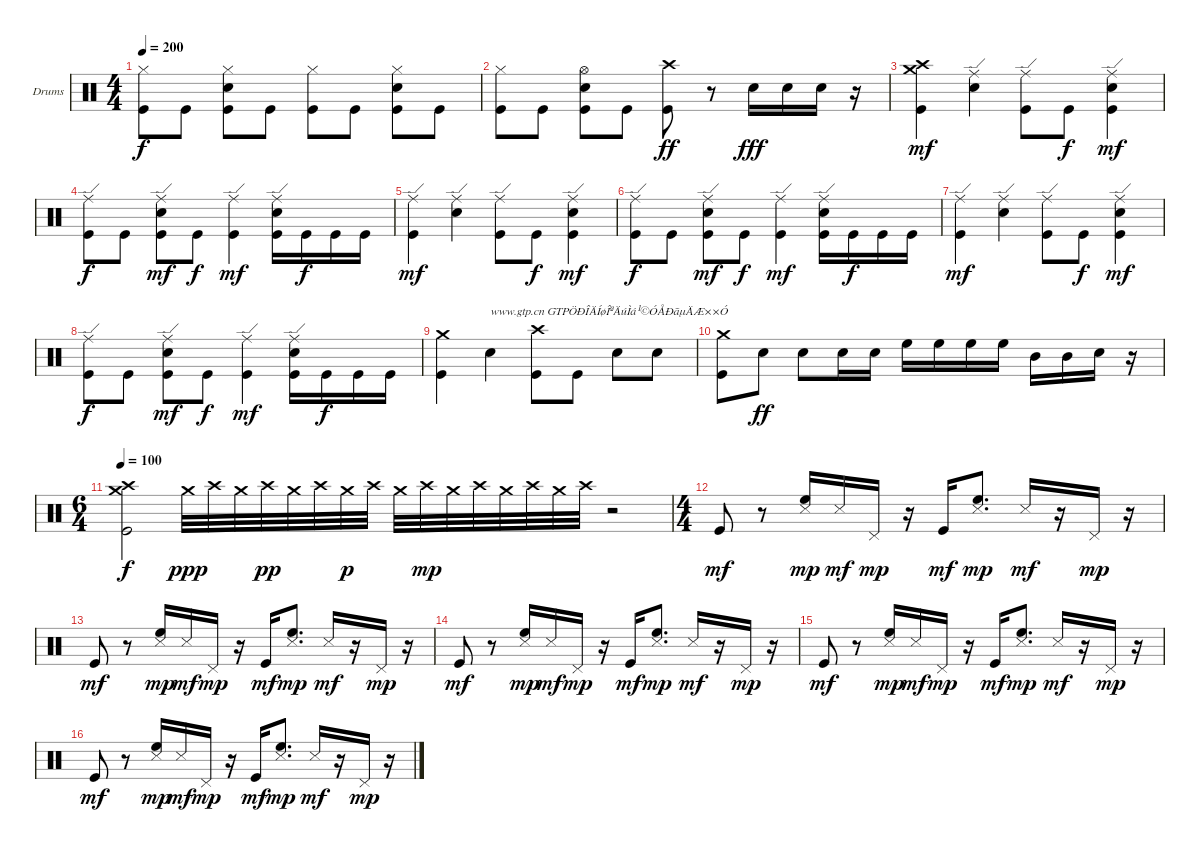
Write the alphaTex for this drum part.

\bracketExtendMode groupsimilarinstruments
\firstSystemTrackNameOrientation horizontal
\otherSystemsTrackNameOrientation horizontal
\track ("Drumkit" "Drums") {instrument percussion}
\staff {score}
\articulation defaults
\ts (4 4)
\tempo 200
\clef neutral
\ks c
("Hi-Hat (closed)" "Kick (hit)").8{dy f} "Kick (hit)".8 ("Hi-Hat (closed)" "Snare (hit) 2" "Kick (hit)").8 "Kick (hit)".8 ("Hi-Hat (closed)" "Kick (hit)").8 "Kick (hit)".8 ("Hi-Hat (closed)" "Snare (hit) 2" "Kick (hit)").8 "Kick (hit)".8 |
("Hi-Hat (closed)" "Kick (hit)").8 "Kick (hit)".8 ("Hi-Hat (open)" "Snare (hit) 2" "Kick (hit)").8 "Kick (hit)".8 ("Crash high (hit)" "Kick (hit)").8{dy ff} r.8 "Snare (hit) 2".16{dy fff} "Snare (hit) 2".16 "Snare (hit) 2".16 r.16 |
("Crash medium (hit)" "Crash high (hit)" "Kick (hit)").4{dy mf} ("Ride (edge)" "Snare (hit) 2").4 ("Ride (edge)" "Kick (hit)").8 "Kick (hit)".8{dy f} ("Ride (edge)" "Snare (hit) 2" "Kick (hit)").4{dy mf} |
("Ride (edge)" "Kick (hit)").8{dy f} "Kick (hit)".8 ("Ride (edge)" "Snare (hit) 2" "Kick (hit)").8{dy mf} "Kick (hit)".8{dy f} ("Ride (edge)" "Kick (hit)").4{dy mf} ("Ride (edge)" "Snare (hit) 2" "Kick (hit)").16 "Kick (hit)".16{dy f} "Kick (hit)".16 "Kick (hit)".16 |
("Ride (edge)" "Kick (hit)").4{dy mf} ("Ride (edge)" "Snare (hit) 2").4 ("Ride (edge)" "Kick (hit)").8 "Kick (hit)".8{dy f} ("Ride (edge)" "Snare (hit) 2" "Kick (hit)").4{dy mf} |
("Ride (edge)" "Kick (hit)").8{dy f} "Kick (hit)".8 ("Ride (edge)" "Snare (hit) 2" "Kick (hit)").8{dy mf} "Kick (hit)".8{dy f} ("Ride (edge)" "Kick (hit)").4{dy mf} ("Ride (edge)" "Snare (hit) 2" "Kick (hit)").16 "Kick (hit)".16{dy f} "Kick (hit)".16 "Kick (hit)".16 |
("Ride (edge)" "Kick (hit)").4{dy mf} ("Ride (edge)" "Snare (hit) 2").4 ("Ride (edge)" "Kick (hit)").8 "Kick (hit)".8{dy f} ("Ride (edge)" "Snare (hit) 2" "Kick (hit)").4{dy mf} |
("Ride (edge)" "Kick (hit)").8{dy f} "Kick (hit)".8 ("Ride (edge)" "Snare (hit) 2" "Kick (hit)").8{dy mf} "Kick (hit)".8{dy f} ("Ride (edge)" "Kick (hit)").4{dy mf} ("Ride (edge)" "Snare (hit) 2" "Kick (hit)").16 "Kick (hit)".16{dy f} "Kick (hit)".16 "Kick (hit)".16 |
("Crash medium (hit)" "Kick (hit)").4 "Snare (hit) 2".4{txt "www.gtp.cn GTPÖÐÎÄÍøÎªÄúÌá¹©ÓÅÐãµÄÆ××Ó"} ("Crash high (hit)" "Kick (hit)").8 "Kick (hit)".8 "Snare (hit) 2".8 "Snare (hit) 2".8 |
("Crash medium (hit)" "Kick (hit)").8 "Snare (hit) 2".8{dy ff} "Snare (hit) 2".8 "Snare (hit) 2".16 "Snare (hit) 2".16 "High Floor Tom (hit)".16 "High Floor Tom (hit)".16 "High Floor Tom (hit)".16 "High Floor Tom (hit)".16 "Mid Tom (hit)".16 "Mid Tom (hit)".16 "Snare (hit) 2".16 r.16 |
\ts (6 4)
\beaming (8 2 2 2 6)
\tempo 100
("Crash medium (hit)" "Crash high (hit)" "Kick (hit)").2{dy f} "Crash medium (hit)".32{dy ppp} "Crash high (hit)".32 "Crash medium (hit)".32 "Crash high (hit)".32{dy pp} "Crash medium (hit)".32 "Crash high (hit)".32 "Crash medium (hit)".32{dy p} "Crash high (hit)".32 "Crash medium (hit)".32 "Crash high (hit)".32{dy mp} "Crash medium (hit)".32 "Crash high (hit)".32 "Crash medium (hit)".32 "Crash high (hit)".32 "Crash medium (hit)".32 "Crash high (hit)".32 r.2 |
\ts (4 4)
\beaming (8 2 2 2 2)
"Kick (hit)".8{dy mf} r.8 ("High Floor Tom (hit)" "Snare (side stick) 3").16{dy mp} "Snare (side stick) 3".16{dy mf} "Pedal Hi-Hat (hit)".16{dy mp} r.16 "Kick (hit)".16{dy mf} ("High Floor Tom (hit)" "Snare (side stick) 3").8{d dy mp} "Snare (side stick) 3".16{dy mf} r.16 "Pedal Hi-Hat (hit)".16{dy mp} r.16 |
"Kick (hit)".8{dy mf} r.8 ("High Floor Tom (hit)" "Snare (side stick) 3").16{dy mp} "Snare (side stick) 3".16{dy mf} "Pedal Hi-Hat (hit)".16{dy mp} r.16 "Kick (hit)".16{dy mf} ("High Floor Tom (hit)" "Snare (side stick) 3").8{d dy mp} "Snare (side stick) 3".16{dy mf} r.16 "Pedal Hi-Hat (hit)".16{dy mp} r.16 |
"Kick (hit)".8{dy mf} r.8 ("High Floor Tom (hit)" "Snare (side stick) 3").16{dy mp} "Snare (side stick) 3".16{dy mf} "Pedal Hi-Hat (hit)".16{dy mp} r.16 "Kick (hit)".16{dy mf} ("High Floor Tom (hit)" "Snare (side stick) 3").8{d dy mp} "Snare (side stick) 3".16{dy mf} r.16 "Pedal Hi-Hat (hit)".16{dy mp} r.16 |
"Kick (hit)".8{dy mf} r.8 ("High Floor Tom (hit)" "Snare (side stick) 3").16{dy mp} "Snare (side stick) 3".16{dy mf} "Pedal Hi-Hat (hit)".16{dy mp} r.16 "Kick (hit)".16{dy mf} ("High Floor Tom (hit)" "Snare (side stick) 3").8{d dy mp} "Snare (side stick) 3".16{dy mf} r.16 "Pedal Hi-Hat (hit)".16{dy mp} r.16 |
"Kick (hit)".8{dy mf} r.8 ("High Floor Tom (hit)" "Snare (side stick) 3").16{dy mp} "Snare (side stick) 3".16{dy mf} "Pedal Hi-Hat (hit)".16{dy mp} r.16 "Kick (hit)".16{dy mf} ("High Floor Tom (hit)" "Snare (side stick) 3").8{d dy mp} "Snare (side stick) 3".16{dy mf} r.16 "Pedal Hi-Hat (hit)".16{dy mp} r.16
